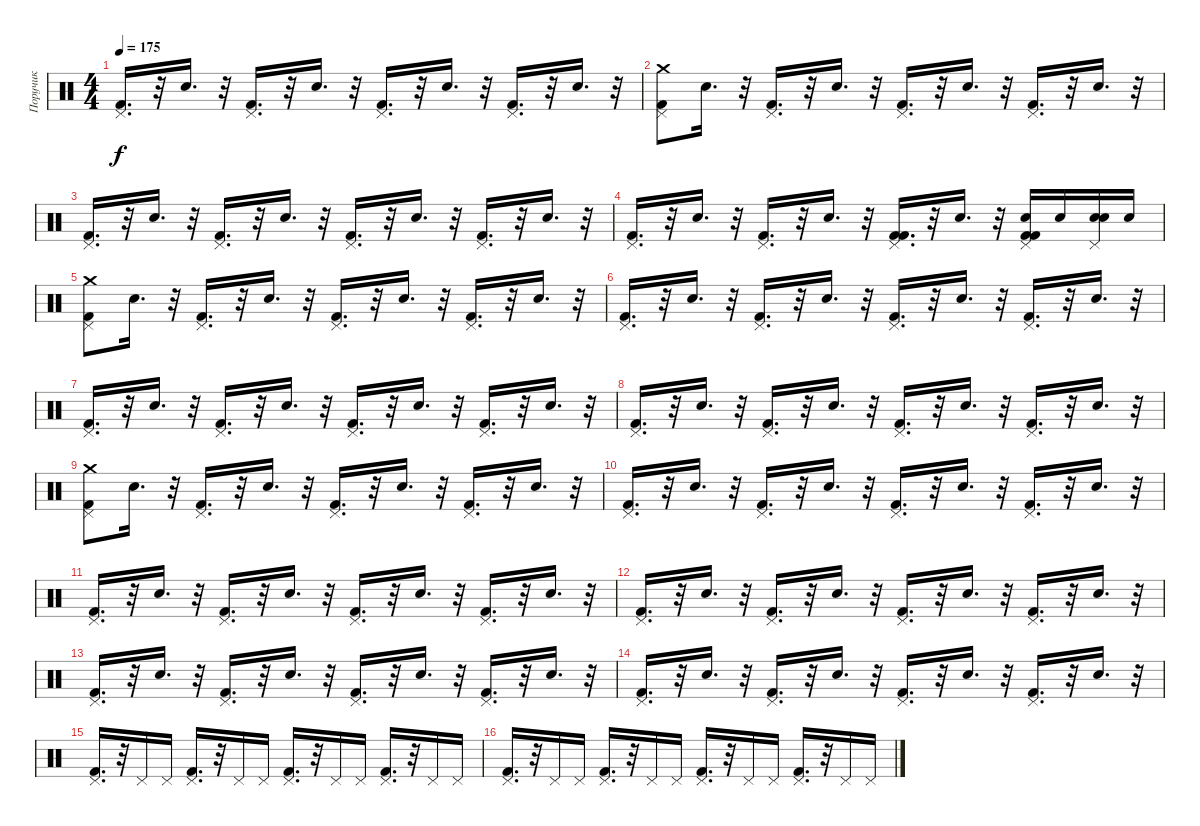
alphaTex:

\track ("Поручик" "Поручик") {instrument percussion}
\staff {score}
\articulation defaults
\ts (4 4)
\tempo 175
\clef neutral
\ks c
("Pedal Hi-Hat (hit)" "Kick (hit) 2").16{d dy f} r.32 "Snare (hit) 2".16{d} r.32 ("Pedal Hi-Hat (hit)" "Kick (hit) 2").16{d} r.32 "Snare (hit) 2".16{d} r.32 ("Kick (hit) 2" "Pedal Hi-Hat (hit)").16{d} r.32 "Snare (hit) 2".16{d} r.32 ("Kick (hit) 2" "Pedal Hi-Hat (hit)").16{d} r.32 "Snare (hit) 2".16{d} r.32 |
("Pedal Hi-Hat (hit)" "Crash medium (hit)" "Kick (hit) 2").8 "Snare (hit) 2".16{d} r.32 ("Pedal Hi-Hat (hit)" "Kick (hit) 2").16{d} r.32 "Snare (hit) 2".16{d} r.32 ("Pedal Hi-Hat (hit)" "Kick (hit) 2").16{d} r.32 "Snare (hit) 2".16{d} r.32 ("Kick (hit) 2" "Pedal Hi-Hat (hit)").16{d} r.32 "Snare (hit) 2".16{d} r.32 |
("Kick (hit) 2" "Pedal Hi-Hat (hit)").16{d} r.32 "Snare (hit) 2".16{d} r.32 ("Pedal Hi-Hat (hit)" "Kick (hit) 2").16{d} r.32 "Snare (hit) 2".16{d} r.32 ("Kick (hit) 2" "Pedal Hi-Hat (hit)").16{d} r.32 "Snare (hit) 2".16{d} r.32 ("Kick (hit) 2" "Pedal Hi-Hat (hit)").16{d} r.32 "Snare (hit) 2".16{d} r.32 |
("Kick (hit) 2" "Pedal Hi-Hat (hit)").16{d} r.32 "Snare (hit) 2".16{d} r.32 ("Pedal Hi-Hat (hit)" "Kick (hit) 2").16{d} r.32 "Snare (hit) 2".16{d} r.32 ("Pedal Hi-Hat (hit)" "Kick (hit) 2" "Kick (hit) 2").16{d} r.32 "Snare (hit) 2".16{d} r.32 ("Pedal Hi-Hat (hit)" "Kick (hit) 2" "Snare (hit) 2" "Kick (hit) 2").16 "Snare (hit) 2".16 ("Snare (hit) 2" "Pedal Hi-Hat (hit)" "Snare (hit) 2").16 "Snare (hit) 2".16 |
("Pedal Hi-Hat (hit)" "Kick (hit) 2" "Crash medium (hit)").8 "Snare (hit) 2".16{d} r.32 ("Pedal Hi-Hat (hit)" "Kick (hit) 2").16{d} r.32 "Snare (hit) 2".16{d} r.32 ("Kick (hit) 2" "Pedal Hi-Hat (hit)").16{d} r.32 "Snare (hit) 2".16{d} r.32 ("Kick (hit) 2" "Pedal Hi-Hat (hit)").16{d} r.32 "Snare (hit) 2".16{d} r.32 |
("Kick (hit) 2" "Pedal Hi-Hat (hit)").16{d} r.32 "Snare (hit) 2".16{d} r.32 ("Pedal Hi-Hat (hit)" "Kick (hit) 2").16{d} r.32 "Snare (hit) 2".16{d} r.32 ("Pedal Hi-Hat (hit)" "Kick (hit) 2").16{d} r.32 "Snare (hit) 2".16{d} r.32 ("Kick (hit) 2" "Pedal Hi-Hat (hit)").16{d} r.32 "Snare (hit) 2".16{d} r.32 |
("Pedal Hi-Hat (hit)" "Kick (hit) 2").16{d} r.32 "Snare (hit) 2".16{d} r.32 ("Pedal Hi-Hat (hit)" "Kick (hit) 2").16{d} r.32 "Snare (hit) 2".16{d} r.32 ("Kick (hit) 2" "Pedal Hi-Hat (hit)").16{d} r.32 "Snare (hit) 2".16{d} r.32 ("Pedal Hi-Hat (hit)" "Kick (hit) 2").16{d} r.32 "Snare (hit) 2".16{d} r.32 |
("Pedal Hi-Hat (hit)" "Kick (hit) 2").16{d} r.32 "Snare (hit) 2".16{d} r.32 ("Pedal Hi-Hat (hit)" "Kick (hit) 2").16{d} r.32 "Snare (hit) 2".16{d} r.32 ("Kick (hit) 2" "Pedal Hi-Hat (hit)").16{d} r.32 "Snare (hit) 2".16{d} r.32 ("Pedal Hi-Hat (hit)" "Kick (hit) 2").16{d} r.32 "Snare (hit) 2".16{d} r.32 |
("Kick (hit) 2" "Pedal Hi-Hat (hit)" "Crash medium (hit)").8 "Snare (hit) 2".16{d} r.32 ("Pedal Hi-Hat (hit)" "Kick (hit) 2").16{d} r.32 "Snare (hit) 2".16{d} r.32 ("Pedal Hi-Hat (hit)" "Kick (hit) 2").16{d} r.32 "Snare (hit) 2".16{d} r.32 ("Pedal Hi-Hat (hit)" "Kick (hit) 2").16{d} r.32 "Snare (hit) 2".16{d} r.32 |
("Pedal Hi-Hat (hit)" "Kick (hit) 2").16{d} r.32 "Snare (hit) 2".16{d} r.32 ("Pedal Hi-Hat (hit)" "Kick (hit) 2").16{d} r.32 "Snare (hit) 2".16{d} r.32 ("Pedal Hi-Hat (hit)" "Kick (hit) 2").16{d} r.32 "Snare (hit) 2".16{d} r.32 ("Pedal Hi-Hat (hit)" "Kick (hit) 2").16{d} r.32 "Snare (hit) 2".16{d} r.32 |
("Kick (hit) 2" "Pedal Hi-Hat (hit)").16{d} r.32 "Snare (hit) 2".16{d} r.32 ("Kick (hit) 2" "Pedal Hi-Hat (hit)").16{d} r.32 "Snare (hit) 2".16{d} r.32 ("Kick (hit) 2" "Pedal Hi-Hat (hit)").16{d} r.32 "Snare (hit) 2".16{d} r.32 ("Pedal Hi-Hat (hit)" "Kick (hit) 2").16{d} r.32 "Snare (hit) 2".16{d} r.32 |
("Pedal Hi-Hat (hit)" "Kick (hit) 2").16{d} r.32 "Snare (hit) 2".16{d} r.32 ("Kick (hit) 2" "Pedal Hi-Hat (hit)").16{d} r.32 "Snare (hit) 2".16{d} r.32 ("Kick (hit) 2" "Pedal Hi-Hat (hit)").16{d} r.32 "Snare (hit) 2".16{d} r.32 ("Pedal Hi-Hat (hit)" "Kick (hit) 2").16{d} r.32 "Snare (hit) 2".16{d} r.32 |
("Pedal Hi-Hat (hit)" "Kick (hit) 2").16{d} r.32 "Snare (hit) 2".16{d} r.32 ("Pedal Hi-Hat (hit)" "Kick (hit) 2").16{d} r.32 "Snare (hit) 2".16{d} r.32 ("Pedal Hi-Hat (hit)" "Kick (hit) 2").16{d} r.32 "Snare (hit) 2".16{d} r.32 ("Kick (hit) 2" "Pedal Hi-Hat (hit)").16{d} r.32 "Snare (hit) 2".16{d} r.32 |
("Pedal Hi-Hat (hit)" "Kick (hit) 2").16{d} r.32 "Snare (hit) 2".16{d} r.32 ("Pedal Hi-Hat (hit)" "Kick (hit) 2").16{d} r.32 "Snare (hit) 2".16{d} r.32 ("Pedal Hi-Hat (hit)" "Kick (hit) 2").16{d} r.32 "Snare (hit) 2".16{d} r.32 ("Pedal Hi-Hat (hit)" "Kick (hit) 2").16{d} r.32 "Snare (hit) 2".16{d} r.32 |
("Kick (hit) 2" "Pedal Hi-Hat (hit)").16{d} r.32 "Pedal Hi-Hat (hit)".16 "Pedal Hi-Hat (hit)".16 ("Pedal Hi-Hat (hit)" "Kick (hit) 2").16{d} r.32 "Pedal Hi-Hat (hit)".16 "Pedal Hi-Hat (hit)".16 ("Kick (hit) 2" "Pedal Hi-Hat (hit)").16{d} r.32 "Pedal Hi-Hat (hit)".16 "Pedal Hi-Hat (hit)".16 ("Kick (hit) 2" "Pedal Hi-Hat (hit)").16{d} r.32 "Pedal Hi-Hat (hit)".16 "Pedal Hi-Hat (hit)".16 |
("Pedal Hi-Hat (hit)" "Kick (hit) 2").16{d} r.32 "Pedal Hi-Hat (hit)".16 "Pedal Hi-Hat (hit)".16 ("Pedal Hi-Hat (hit)" "Kick (hit) 2").16{d} r.32 "Pedal Hi-Hat (hit)".16 "Pedal Hi-Hat (hit)".16 ("Kick (hit) 2" "Pedal Hi-Hat (hit)").16{d} r.32 "Pedal Hi-Hat (hit)".16 "Pedal Hi-Hat (hit)".16 ("Kick (hit) 2" "Pedal Hi-Hat (hit)").16{d} r.32 "Pedal Hi-Hat (hit)".16 "Pedal Hi-Hat (hit)".16
